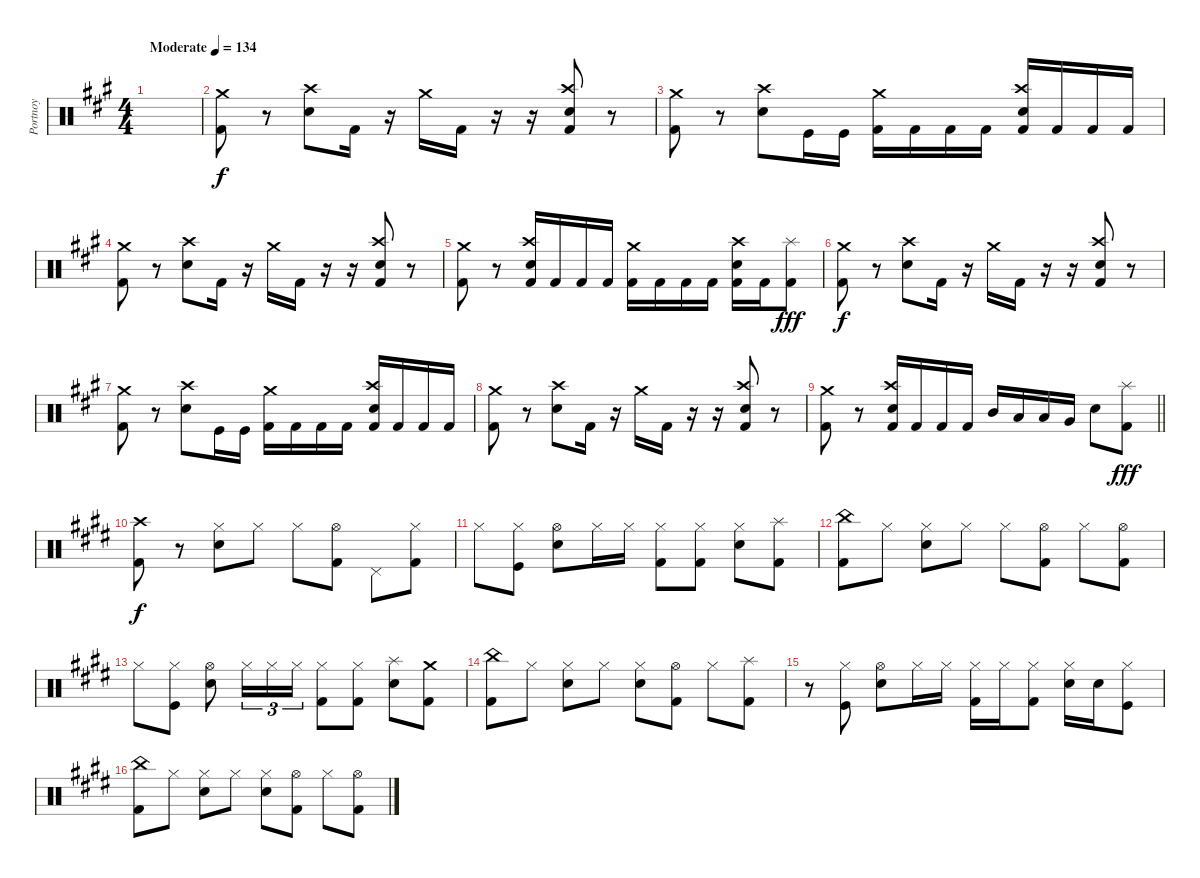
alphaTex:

\track ("Portnoy" "Portnoy") {instrument percussion}
\staff {score}
\articulation defaults
\ts (4 4)
\tempo (134 "Moderate")
\clef neutral
\ks f#minor
|
("Kick (hit) 2" "Crash medium (hit)").8 r.8 ("Crash high (hit)" "Snare (hit) 2").8 "Kick (hit) 2".16 r.16 "Crash medium (hit)".16 "Kick (hit) 2".16 r.16 r.16 ("Kick (hit) 2" "Crash high (hit)" "Snare (hit) 2").8 r.8 |
("Kick (hit) 2" "Crash medium (hit)").8 r.8 ("Crash high (hit)" "Snare (hit) 2").8 "Kick (hit)".16 "Kick (hit)".16 ("Kick (hit) 2" "Crash medium (hit)").16 "Kick (hit) 2".16 "Kick (hit) 2".16 "Kick (hit) 2".16 ("Kick (hit) 2" "Crash high (hit)" "Snare (hit) 2").16 "Kick (hit) 2".16 "Kick (hit) 2".16 "Kick (hit) 2".16 |
("Kick (hit) 2" "Crash medium (hit)").8 r.8 ("Crash high (hit)" "Snare (hit) 2").8 "Kick (hit) 2".16 r.16 "Crash medium (hit)".16 "Kick (hit) 2".16 r.16 r.16 ("Kick (hit) 2" "Crash high (hit)" "Snare (hit) 2").8 r.8 |
("Kick (hit) 2" "Crash medium (hit)").8 r.8 ("Kick (hit) 2" "Crash high (hit)" "Snare (hit) 2").16 "Kick (hit) 2".16 "Kick (hit) 2".16 "Kick (hit) 2".16 ("Kick (hit) 2" "Crash medium (hit)").16 "Kick (hit) 2".16 "Kick (hit) 2".16 "Kick (hit) 2".16 ("Kick (hit) 2" "Crash high (hit)" "Snare (hit) 2").16 "Kick (hit) 2".16 ("Kick (hit) 2" "Splash (hit)").8{dy fff} |
("Kick (hit) 2" "Crash medium (hit)").8{dy f} r.8 ("Crash high (hit)" "Snare (hit) 2").8 "Kick (hit) 2".16 r.16 "Crash medium (hit)".16 "Kick (hit) 2".16 r.16 r.16 ("Kick (hit) 2" "Crash high (hit)" "Snare (hit) 2").8 r.8 |
("Kick (hit) 2" "Crash medium (hit)").8 r.8 ("Crash high (hit)" "Snare (hit) 2").8 "Kick (hit)".16 "Kick (hit)".16 ("Kick (hit) 2" "Crash medium (hit)").16 "Kick (hit) 2".16 "Kick (hit) 2".16 "Kick (hit) 2".16 ("Kick (hit) 2" "Crash high (hit)" "Snare (hit) 2").16 "Kick (hit) 2".16 "Kick (hit) 2".16 "Kick (hit) 2".16 |
("Kick (hit) 2" "Crash medium (hit)").8 r.8 ("Crash high (hit)" "Snare (hit) 2").8 "Kick (hit) 2".16 r.16 "Crash medium (hit)".16 "Kick (hit) 2".16 r.16 r.16 ("Kick (hit) 2" "Crash high (hit)" "Snare (hit) 2").8 r.8 |
\barLineRight lightlight
("Kick (hit) 2" "Crash medium (hit)").8 r.8 ("Kick (hit) 2" "Crash high (hit)" "Snare (hit) 2").16 "Kick (hit) 2".16 "Kick (hit) 2".16 "Kick (hit) 2".16 "Mid Tom (hit)".16 "Low Tom (hit)".16 "Low Tom (hit)".16 "Very Low Tom (hit)".16 "Snare (hit) 2".8 ("Kick (hit) 2" "Splash (hit)").8{dy fff} |
\ks c#minor
("Kick (hit) 2" "Crash high (hit)").8{dy f} r.8 ("Snare (hit) 2" "Hi-Hat (closed)").8 "Hi-Hat (closed)".8 "Hi-Hat (closed)".8 ("Kick (hit) 2" "Hi-Hat (open)").8 "Pedal Hi-Hat (hit)".8 ("Kick (hit) 2" "Hi-Hat (closed)").8 |
"Hi-Hat (closed)".8 ("Kick (hit)" "Hi-Hat (closed)").8 ("Snare (hit) 2" "Hi-Hat (open)").8 "Hi-Hat (closed)".16 "Hi-Hat (closed)".16 ("Kick (hit) 2" "Hi-Hat (closed)").8 ("Kick (hit) 2" "Hi-Hat (closed)").8 ("Snare (hit) 2" "Hi-Hat (closed)").8 ("Kick (hit) 2" "Splash (hit)").8 |
("Kick (hit) 2" "China (hit)").8 "Hi-Hat (closed)".8 ("Snare (hit) 2" "Hi-Hat (closed)").8 "Hi-Hat (closed)".8 "Hi-Hat (closed)".8 ("Kick (hit) 2" "Hi-Hat (open)").8 "Hi-Hat (closed)".8 ("Kick (hit) 2" "Hi-Hat (open)").8 |
"Hi-Hat (closed)".8 ("Kick (hit)" "Hi-Hat (closed)").8 ("Snare (hit) 2" "Hi-Hat (open)").8 "Hi-Hat (closed)".16{tu (3 2)} "Hi-Hat (closed)".16{tu (3 2)} "Hi-Hat (closed)".16{tu (3 2)} ("Kick (hit) 2" "Hi-Hat (closed)").8 ("Kick (hit) 2" "Hi-Hat (closed)").8 ("Snare (hit) 2" "Splash (hit)").8 ("Kick (hit) 2" "Crash medium (hit)").8 |
("Kick (hit) 2" "China (hit)").8 "Hi-Hat (closed)".8 ("Snare (hit) 2" "Hi-Hat (closed)").8 "Hi-Hat (closed)".8 ("Hi-Hat (closed)" "Snare (hit) 2").8 ("Kick (hit) 2" "Hi-Hat (open)").8 "Hi-Hat (closed)".8 ("Kick (hit) 2" "Splash (hit)").8 |
r.8 ("Kick (hit)" "Hi-Hat (closed)").8 ("Snare (hit) 2" "Hi-Hat (open)").8 "Hi-Hat (closed)".16 "Hi-Hat (closed)".16 ("Kick (hit) 2" "Hi-Hat (closed)").16 "Hi-Hat (closed)".16 ("Kick (hit) 2" "Hi-Hat (closed)").8 ("Electric Snare (hit)" "Hi-Hat (closed)").16 "Electric Snare (hit)".16 ("Kick (hit)" "Hi-Hat (closed)").8 |
("Kick (hit) 2" "China (hit)").8 "Hi-Hat (closed)".8 ("Snare (hit) 2" "Hi-Hat (closed)").8 "Hi-Hat (closed)".8 ("Snare (hit) 2" "Hi-Hat (closed)").8 ("Kick (hit) 2" "Hi-Hat (open)").8 "Hi-Hat (closed)".8 ("Kick (hit) 2" "Hi-Hat (open)").8
